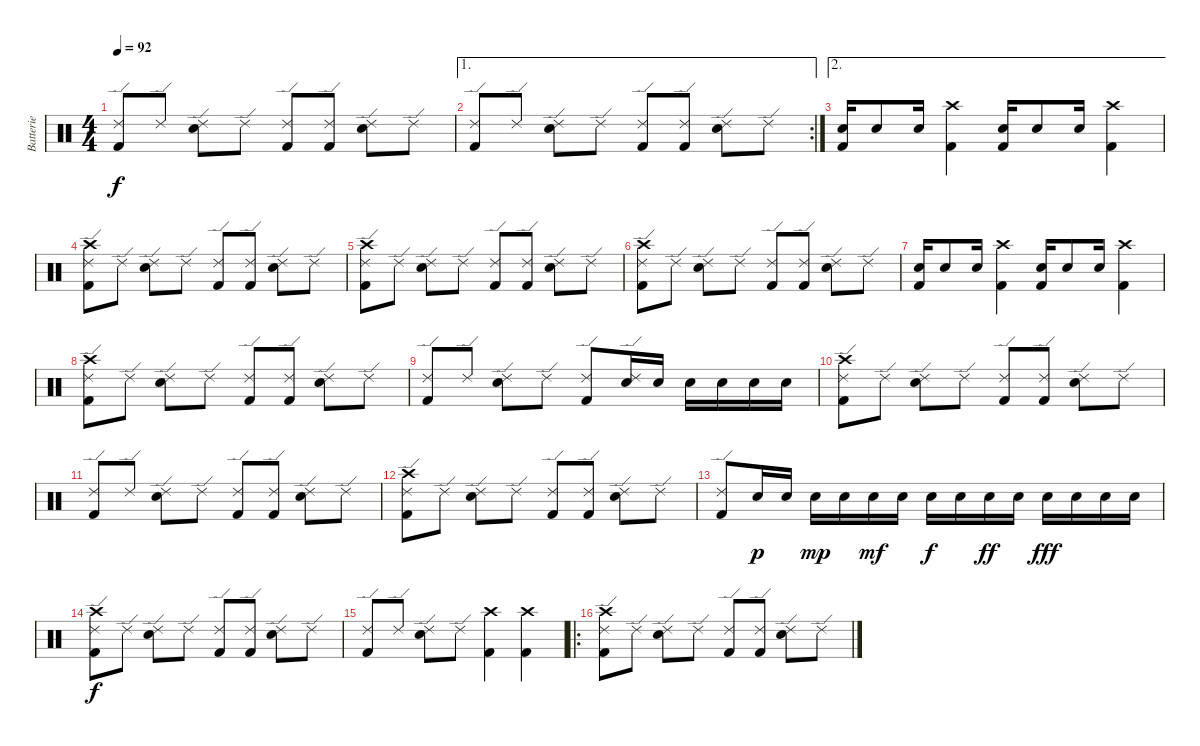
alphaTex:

\track ("Batterie" "Batterie") {instrument percussion}
\staff {score}
\articulation defaults
\ts (4 4)
\tempo 92
\clef neutral
\ks c
("Ride (edge) 2" "Kick (hit) 2").8{dy f} "Ride (edge) 2".8 ("Ride (edge) 2" "Electric Snare (hit)").8 "Ride (edge) 2".8 ("Ride (edge) 2" "Kick (hit) 2").8 ("Ride (edge) 2" "Kick (hit) 2").8 ("Ride (edge) 2" "Electric Snare (hit)").8 "Ride (edge) 2".8 |
\ae 1
\rc 2
("Ride (edge) 2" "Kick (hit) 2").8 "Ride (edge) 2".8 ("Ride (edge) 2" "Electric Snare (hit)").8 "Ride (edge) 2".8 ("Ride (edge) 2" "Kick (hit) 2").8 ("Ride (edge) 2" "Kick (hit) 2").8 ("Ride (edge) 2" "Electric Snare (hit)").8 "Ride (edge) 2".8 |
\ae 2
("Kick (hit) 2" "Electric Snare (hit)").16 "Electric Snare (hit)".8 "Electric Snare (hit)".16 ("Kick (hit) 2" "Crash high (hit)").4 ("Kick (hit) 2" "Electric Snare (hit)").16 "Electric Snare (hit)".8 "Electric Snare (hit)".16 ("Kick (hit) 2" "Crash high (hit)").4 |
("Ride (edge) 2" "Kick (hit) 2" "Crash high (hit)").8 "Ride (edge) 2".8 ("Ride (edge) 2" "Electric Snare (hit)").8 "Ride (edge) 2".8 ("Ride (edge) 2" "Kick (hit) 2").8 ("Ride (edge) 2" "Kick (hit) 2").8 ("Ride (edge) 2" "Electric Snare (hit)").8 "Ride (edge) 2".8 |
("Ride (edge) 2" "Kick (hit) 2" "Crash high (hit)").8 "Ride (edge) 2".8 ("Ride (edge) 2" "Electric Snare (hit)").8 "Ride (edge) 2".8 ("Ride (edge) 2" "Kick (hit) 2").8 ("Ride (edge) 2" "Kick (hit) 2").8 ("Ride (edge) 2" "Electric Snare (hit)").8 "Ride (edge) 2".8 |
("Ride (edge) 2" "Kick (hit) 2" "Crash high (hit)").8 "Ride (edge) 2".8 ("Ride (edge) 2" "Electric Snare (hit)").8 "Ride (edge) 2".8 ("Ride (edge) 2" "Kick (hit) 2").8 ("Ride (edge) 2" "Kick (hit) 2").8 ("Ride (edge) 2" "Electric Snare (hit)").8 "Ride (edge) 2".8 |
("Kick (hit) 2" "Electric Snare (hit)").16 "Electric Snare (hit)".8 "Electric Snare (hit)".16 ("Kick (hit) 2" "Crash high (hit)").4 ("Kick (hit) 2" "Electric Snare (hit)").16 "Electric Snare (hit)".8 "Electric Snare (hit)".16 ("Kick (hit) 2" "Crash high (hit)").4 |
("Ride (edge) 2" "Kick (hit) 2" "Crash high (hit)").8 "Ride (edge) 2".8 ("Ride (edge) 2" "Electric Snare (hit)").8 "Ride (edge) 2".8 ("Ride (edge) 2" "Kick (hit) 2").8 ("Ride (edge) 2" "Kick (hit) 2").8 ("Ride (edge) 2" "Electric Snare (hit)").8 "Ride (edge) 2".8 |
("Ride (edge) 2" "Kick (hit) 2").8 "Ride (edge) 2".8 ("Ride (edge) 2" "Electric Snare (hit)").8 "Ride (edge) 2".8 ("Ride (edge) 2" "Kick (hit) 2").8 ("Ride (edge) 2" "Electric Snare (hit)").16 "Electric Snare (hit)".16 "Electric Snare (hit)".16 "Electric Snare (hit)".16 "Electric Snare (hit)".16 "Electric Snare (hit)".16 |
("Ride (edge) 2" "Kick (hit) 2" "Crash high (hit)").8 "Ride (edge) 2".8 ("Ride (edge) 2" "Electric Snare (hit)").8 "Ride (edge) 2".8 ("Ride (edge) 2" "Kick (hit) 2").8 ("Ride (edge) 2" "Kick (hit) 2").8 ("Ride (edge) 2" "Electric Snare (hit)").8 "Ride (edge) 2".8 |
("Ride (edge) 2" "Kick (hit) 2").8 "Ride (edge) 2".8 ("Ride (edge) 2" "Electric Snare (hit)").8 "Ride (edge) 2".8 ("Ride (edge) 2" "Kick (hit) 2").8 ("Ride (edge) 2" "Kick (hit) 2").8 ("Ride (edge) 2" "Electric Snare (hit)").8 "Ride (edge) 2".8 |
("Ride (edge) 2" "Kick (hit) 2" "Crash high (hit)").8 "Ride (edge) 2".8 ("Ride (edge) 2" "Electric Snare (hit)").8 "Ride (edge) 2".8 ("Ride (edge) 2" "Kick (hit) 2").8 ("Ride (edge) 2" "Kick (hit) 2").8 ("Ride (edge) 2" "Electric Snare (hit)").8 "Ride (edge) 2".8 |
("Ride (edge) 2" "Kick (hit) 2").8 "Electric Snare (hit)".16{dy p} "Electric Snare (hit)".16 "Electric Snare (hit)".16{dy mp} "Electric Snare (hit)".16 "Electric Snare (hit)".16{dy mf} "Electric Snare (hit)".16 "Electric Snare (hit)".16{dy f} "Electric Snare (hit)".16 "Electric Snare (hit)".16{dy ff} "Electric Snare (hit)".16 "Electric Snare (hit)".16{dy fff} "Electric Snare (hit)".16 "Electric Snare (hit)".16 "Electric Snare (hit)".16 |
("Ride (edge) 2" "Kick (hit) 2" "Crash high (hit)").8{dy f} "Ride (edge) 2".8 ("Ride (edge) 2" "Electric Snare (hit)").8 "Ride (edge) 2".8 ("Ride (edge) 2" "Kick (hit) 2").8 ("Ride (edge) 2" "Kick (hit) 2").8 ("Ride (edge) 2" "Electric Snare (hit)").8 "Ride (edge) 2".8 |
("Ride (edge) 2" "Kick (hit) 2").8 "Ride (edge) 2".8 ("Ride (edge) 2" "Electric Snare (hit)").8 "Ride (edge) 2".8 ("Kick (hit) 2" "Crash high (hit)").4 ("Kick (hit) 2" "Crash high (hit)").4 |
\ro
("Ride (edge) 2" "Kick (hit) 2" "Crash high (hit)").8 "Ride (edge) 2".8 ("Ride (edge) 2" "Electric Snare (hit)").8 "Ride (edge) 2".8 ("Ride (edge) 2" "Kick (hit) 2").8 ("Ride (edge) 2" "Kick (hit) 2").8 ("Ride (edge) 2" "Electric Snare (hit)").8 "Ride (edge) 2".8
